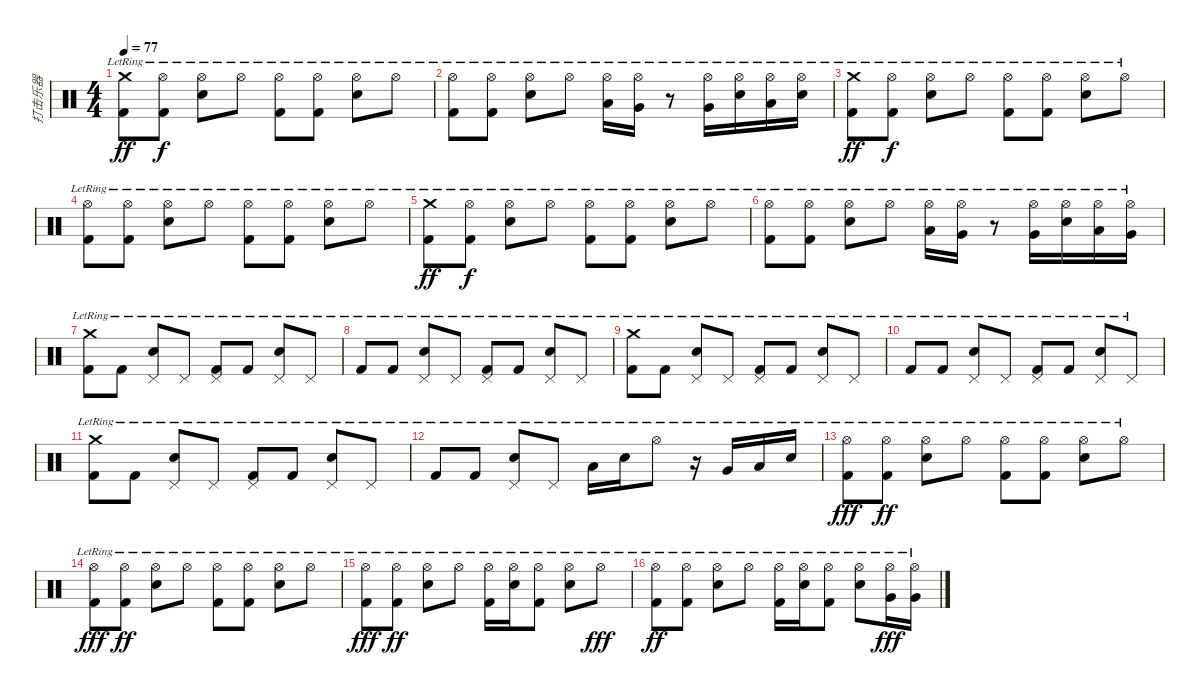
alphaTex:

\track ("打击乐器" "打击乐器") {instrument percussion}
\staff {score}
\articulation defaults
\ts (4 4)
\tempo 77
\clef neutral
\ks c
("Kick (hit) 2"{lr} "Crash medium (hit)"{lr}).8{dy ff} ("Kick (hit) 2"{lr} "Hi-Hat (open)"{lr}).8{dy f} ("Snare (hit) 2"{lr} "Hi-Hat (open)"{lr}).8 "Hi-Hat (open)"{lr}.8 ("Kick (hit) 2"{lr} "Hi-Hat (open)"{lr}).8 ("Kick (hit) 2"{lr} "Hi-Hat (open)"{lr}).8 ("Electric Snare (hit)"{lr} "Hi-Hat (open)"{lr}).8 "Hi-Hat (open)"{lr}.8 |
("Kick (hit) 2"{lr} "Hi-Hat (open)"{lr}).8 ("Kick (hit) 2"{lr} "Hi-Hat (open)"{lr}).8 ("Snare (hit) 2"{lr} "Hi-Hat (open)"{lr}).8 "Hi-Hat (open)"{lr}.8 ("Low Floor Tom (hit)"{lr} "Hi-Hat (open)"{lr}).16 ("Very Low Tom (hit)"{lr} "Hi-Hat (open)"{lr}).16 r.8 ("Very Low Tom (hit)"{lr} "Hi-Hat (open)"{lr}).16 ("Electric Snare (hit)"{lr} "Hi-Hat (open)"{lr}).16 ("Low Floor Tom (hit)"{lr} "Hi-Hat (open)"{lr}).16 ("Electric Snare (hit)"{lr} "Hi-Hat (open)"{lr}).16 |
("Kick (hit) 2"{lr} "Crash medium (hit)"{lr}).8{dy ff} ("Kick (hit) 2"{lr} "Hi-Hat (open)"{lr}).8{dy f} ("Snare (hit) 2"{lr} "Hi-Hat (open)"{lr}).8 "Hi-Hat (open)"{lr}.8 ("Kick (hit) 2"{lr} "Hi-Hat (open)"{lr}).8 ("Kick (hit) 2"{lr} "Hi-Hat (open)"{lr}).8 ("Electric Snare (hit)"{lr} "Hi-Hat (open)"{lr}).8 "Hi-Hat (open)"{lr}.8 |
("Kick (hit) 2"{lr} "Hi-Hat (open)"{lr}).8 ("Kick (hit) 2"{lr} "Hi-Hat (open)"{lr}).8 ("Snare (hit) 2"{lr} "Hi-Hat (open)"{lr}).8 "Hi-Hat (open)"{lr}.8 ("Kick (hit) 2"{lr} "Hi-Hat (open)"{lr}).8 ("Kick (hit) 2"{lr} "Hi-Hat (open)"{lr}).8 ("Electric Snare (hit)"{lr} "Hi-Hat (open)"{lr}).8 "Hi-Hat (open)"{lr}.8 |
("Kick (hit) 2"{lr} "Crash medium (hit)"{lr}).8{dy ff} ("Kick (hit) 2"{lr} "Hi-Hat (open)"{lr}).8{dy f} ("Snare (hit) 2"{lr} "Hi-Hat (open)"{lr}).8 "Hi-Hat (open)"{lr}.8 ("Kick (hit) 2"{lr} "Hi-Hat (open)"{lr}).8 ("Kick (hit) 2"{lr} "Hi-Hat (open)"{lr}).8 ("Electric Snare (hit)"{lr} "Hi-Hat (open)"{lr}).8 "Hi-Hat (open)"{lr}.8 |
("Kick (hit) 2"{lr} "Hi-Hat (open)"{lr}).8 ("Kick (hit) 2"{lr} "Hi-Hat (open)"{lr}).8 ("Snare (hit) 2"{lr} "Hi-Hat (open)"{lr}).8 "Hi-Hat (open)"{lr}.8 ("Low Floor Tom (hit)"{lr} "Hi-Hat (open)"{lr}).16 ("Very Low Tom (hit)"{lr} "Hi-Hat (open)"{lr}).16 r.8 ("Very Low Tom (hit)"{lr} "Hi-Hat (open)"{lr}).16 ("Electric Snare (hit)"{lr} "Hi-Hat (open)"{lr}).16 ("Low Floor Tom (hit)"{lr} "Hi-Hat (open)"{lr}).16 ("Very Low Tom (hit)"{lr} "Hi-Hat (open)"{lr}).16 |
("Kick (hit) 2"{lr} "Crash medium (hit)"{lr}).8 "Kick (hit) 2"{lr}.8 ("Snare (hit) 2"{lr} "Pedal Hi-Hat (hit)"{lr}).8 "Pedal Hi-Hat (hit)"{lr}.8 ("Kick (hit) 2"{lr} "Pedal Hi-Hat (hit)"{lr}).8 "Kick (hit) 2"{lr}.8 ("Electric Snare (hit)"{lr} "Pedal Hi-Hat (hit)"{lr}).8 "Pedal Hi-Hat (hit)"{lr}.8 |
"Kick (hit) 2"{lr}.8 "Kick (hit) 2"{lr}.8 ("Snare (hit) 2"{lr} "Pedal Hi-Hat (hit)"{lr}).8 "Pedal Hi-Hat (hit)"{lr}.8 ("Kick (hit) 2"{lr} "Pedal Hi-Hat (hit)"{lr}).8 "Kick (hit) 2"{lr}.8 ("Electric Snare (hit)"{lr} "Pedal Hi-Hat (hit)"{lr}).8 "Pedal Hi-Hat (hit)"{lr}.8 |
("Kick (hit) 2"{lr} "Crash medium (hit)"{lr}).8 "Kick (hit) 2"{lr}.8 ("Snare (hit) 2"{lr} "Pedal Hi-Hat (hit)"{lr}).8 "Pedal Hi-Hat (hit)"{lr}.8 ("Kick (hit) 2"{lr} "Pedal Hi-Hat (hit)"{lr}).8 "Kick (hit) 2"{lr}.8 ("Electric Snare (hit)"{lr} "Pedal Hi-Hat (hit)"{lr}).8 "Pedal Hi-Hat (hit)"{lr}.8 |
"Kick (hit) 2"{lr}.8 "Kick (hit) 2"{lr}.8 ("Snare (hit) 2"{lr} "Pedal Hi-Hat (hit)"{lr}).8 "Pedal Hi-Hat (hit)"{lr}.8 ("Kick (hit) 2"{lr} "Pedal Hi-Hat (hit)"{lr}).8 "Kick (hit) 2"{lr}.8 ("Electric Snare (hit)"{lr} "Pedal Hi-Hat (hit)"{lr}).8 "Pedal Hi-Hat (hit)"{lr}.8 |
("Kick (hit) 2"{lr} "Crash medium (hit)"{lr}).8 "Kick (hit) 2"{lr}.8 ("Snare (hit) 2"{lr} "Pedal Hi-Hat (hit)"{lr}).8 "Pedal Hi-Hat (hit)"{lr}.8 ("Kick (hit) 2"{lr} "Pedal Hi-Hat (hit)"{lr}).8 "Kick (hit) 2"{lr}.8 ("Electric Snare (hit)"{lr} "Pedal Hi-Hat (hit)"{lr}).8 "Pedal Hi-Hat (hit)"{lr}.8 |
"Kick (hit) 2"{lr}.8 "Kick (hit) 2"{lr}.8 ("Snare (hit) 2"{lr} "Pedal Hi-Hat (hit)"{lr}).8 "Pedal Hi-Hat (hit)"{lr}.8 "Low Floor Tom (hit)"{lr}.16 "Electric Snare (hit)"{lr}.16 "Hi-Hat (open)"{lr}.8 r.16 "Very Low Tom (hit)"{lr}.16 "Low Floor Tom (hit)"{lr}.16 "Electric Snare (hit)"{lr}.16 |
("Kick (hit) 2"{lr} "Hi-Hat (open)"{lr}).8{dy fff} ("Kick (hit) 2"{lr} "Hi-Hat (open)"{lr}).8{dy ff} ("Snare (hit) 2"{lr} "Hi-Hat (open)"{lr}).8 "Hi-Hat (open)"{lr}.8 ("Kick (hit) 2"{lr} "Hi-Hat (open)"{lr}).8 ("Kick (hit) 2"{lr} "Hi-Hat (open)"{lr}).8 ("Snare (hit) 2"{lr} "Hi-Hat (open)"{lr}).8 "Hi-Hat (open)"{lr}.8 |
("Kick (hit) 2"{lr} "Hi-Hat (open)"{lr}).8{dy fff} ("Kick (hit) 2"{lr} "Hi-Hat (open)"{lr}).8{dy ff} ("Snare (hit) 2"{lr} "Hi-Hat (open)"{lr}).8 "Hi-Hat (open)"{lr}.8 ("Kick (hit) 2"{lr} "Hi-Hat (open)"{lr}).8 ("Kick (hit) 2"{lr} "Hi-Hat (open)"{lr}).8 ("Snare (hit) 2"{lr} "Hi-Hat (open)"{lr}).8 "Hi-Hat (open)"{lr}.8 |
("Kick (hit) 2"{lr} "Hi-Hat (open)"{lr}).8{dy fff} ("Kick (hit) 2"{lr} "Hi-Hat (open)"{lr}).8{dy ff} ("Snare (hit) 2"{lr} "Hi-Hat (open)"{lr}).8 "Hi-Hat (open)"{lr}.8 ("Kick (hit) 2"{lr} "Hi-Hat (open)"{lr}).16 ("Snare (hit) 2"{lr} "Hi-Hat (open)"{lr}).16 ("Kick (hit) 2"{lr} "Hi-Hat (open)"{lr}).8 ("Snare (hit) 2"{lr} "Hi-Hat (open)"{lr}).8 "Hi-Hat (open)"{lr}.8{dy fff} |
("Kick (hit) 2"{lr} "Hi-Hat (open)"{lr}).8{dy ff} ("Kick (hit) 2"{lr} "Hi-Hat (open)"{lr}).8 ("Snare (hit) 2"{lr} "Hi-Hat (open)"{lr}).8 "Hi-Hat (open)"{lr}.8 ("Kick (hit) 2"{lr} "Hi-Hat (open)"{lr}).16 ("Snare (hit) 2"{lr} "Hi-Hat (open)"{lr}).16 ("Kick (hit) 2"{lr} "Hi-Hat (open)"{lr}).8 ("Snare (hit) 2"{lr} "Hi-Hat (open)"{lr}).8 ("Very Low Tom (hit)"{lr} "Hi-Hat (open)"{lr}).16{dy fff} ("Very Low Tom (hit)"{lr} "Hi-Hat (open)"{lr}).16
